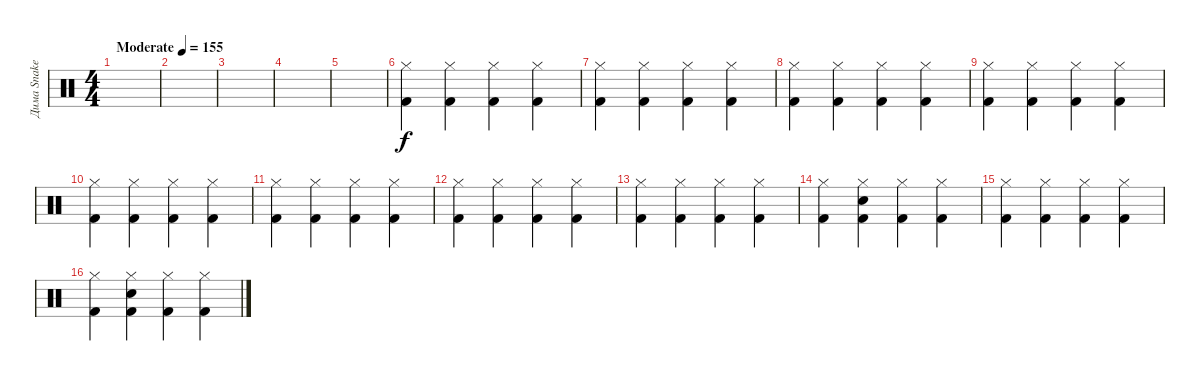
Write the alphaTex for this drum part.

\track ("Дима Snake Хакимов" "Дима Snake") {instrument percussion}
\staff {score}
\articulation defaults
\ts (4 4)
\tempo (155 "Moderate")
\clef neutral
\ks c
|
|
|
|
|
("Hi-Hat (closed)" "Kick (hit) 2").4 ("Hi-Hat (closed)" "Kick (hit) 2").4 ("Hi-Hat (closed)" "Kick (hit) 2").4 ("Hi-Hat (closed)" "Kick (hit) 2").4 |
("Hi-Hat (closed)" "Kick (hit) 2").4 ("Hi-Hat (closed)" "Kick (hit) 2").4 ("Hi-Hat (closed)" "Kick (hit) 2").4 ("Hi-Hat (closed)" "Kick (hit) 2").4 |
("Hi-Hat (closed)" "Kick (hit) 2").4 ("Hi-Hat (closed)" "Kick (hit) 2").4 ("Hi-Hat (closed)" "Kick (hit) 2").4 ("Hi-Hat (closed)" "Kick (hit) 2").4 |
("Hi-Hat (closed)" "Kick (hit) 2").4 ("Hi-Hat (closed)" "Kick (hit) 2").4 ("Hi-Hat (closed)" "Kick (hit) 2").4 ("Hi-Hat (closed)" "Kick (hit) 2").4 |
("Hi-Hat (closed)" "Kick (hit) 2").4 ("Hi-Hat (closed)" "Kick (hit) 2").4 ("Hi-Hat (closed)" "Kick (hit) 2").4 ("Hi-Hat (closed)" "Kick (hit) 2").4 |
("Hi-Hat (closed)" "Kick (hit) 2").4 ("Hi-Hat (closed)" "Kick (hit) 2").4 ("Hi-Hat (closed)" "Kick (hit) 2").4 ("Hi-Hat (closed)" "Kick (hit) 2").4 |
("Hi-Hat (closed)" "Kick (hit) 2").4 ("Hi-Hat (closed)" "Kick (hit) 2").4 ("Hi-Hat (closed)" "Kick (hit) 2").4 ("Hi-Hat (closed)" "Kick (hit) 2").4 |
("Hi-Hat (closed)" "Kick (hit) 2").4 ("Hi-Hat (closed)" "Kick (hit) 2").4 ("Hi-Hat (closed)" "Kick (hit) 2").4 ("Hi-Hat (closed)" "Kick (hit) 2").4 |
("Hi-Hat (closed)" "Kick (hit) 2").4 ("Hi-Hat (closed)" "Snare (hit) 2" "Kick (hit) 2").4 ("Hi-Hat (closed)" "Kick (hit) 2").4 ("Hi-Hat (closed)" "Kick (hit) 2").4 |
("Hi-Hat (closed)" "Kick (hit) 2").4 ("Hi-Hat (closed)" "Kick (hit) 2").4 ("Hi-Hat (closed)" "Kick (hit) 2").4 ("Hi-Hat (closed)" "Kick (hit) 2").4 |
("Hi-Hat (closed)" "Kick (hit) 2").4 ("Hi-Hat (closed)" "Snare (hit) 2" "Kick (hit) 2").4 ("Hi-Hat (closed)" "Kick (hit) 2").4 ("Hi-Hat (closed)" "Kick (hit) 2").4
